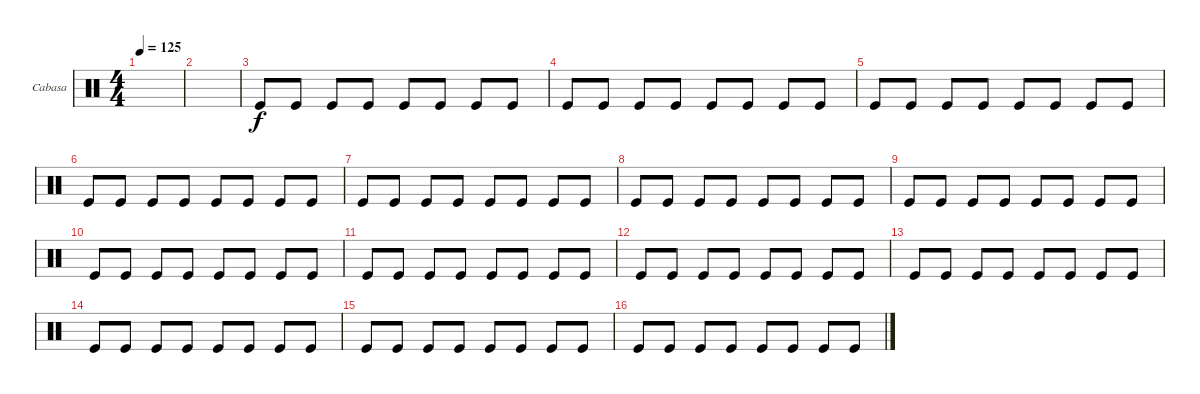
\defaultSystemsLayout 4
\bracketExtendMode groupsimilarinstruments
\firstSystemTrackNameOrientation horizontal
\otherSystemsTrackNameOrientation horizontal
\track ("Cabasa" "Cabasa") {instrument percussion}
\staff {score}
\articulation defaults
\ts (4 4)
\tempo 125
\clef neutral
\ks c
|
|
"Kick (hit)".8 "Kick (hit)".8 "Kick (hit)".8 "Kick (hit)".8 "Kick (hit)".8 "Kick (hit)".8 "Kick (hit)".8 "Kick (hit)".8 |
"Kick (hit)".8 "Kick (hit)".8 "Kick (hit)".8 "Kick (hit)".8 "Kick (hit)".8 "Kick (hit)".8 "Kick (hit)".8 "Kick (hit)".8 |
"Kick (hit)".8 "Kick (hit)".8 "Kick (hit)".8 "Kick (hit)".8 "Kick (hit)".8 "Kick (hit)".8 "Kick (hit)".8 "Kick (hit)".8 |
"Kick (hit)".8 "Kick (hit)".8 "Kick (hit)".8 "Kick (hit)".8 "Kick (hit)".8 "Kick (hit)".8 "Kick (hit)".8 "Kick (hit)".8 |
"Kick (hit)".8 "Kick (hit)".8 "Kick (hit)".8 "Kick (hit)".8 "Kick (hit)".8 "Kick (hit)".8 "Kick (hit)".8 "Kick (hit)".8 |
"Kick (hit)".8 "Kick (hit)".8 "Kick (hit)".8 "Kick (hit)".8 "Kick (hit)".8 "Kick (hit)".8 "Kick (hit)".8 "Kick (hit)".8 |
"Kick (hit)".8 "Kick (hit)".8 "Kick (hit)".8 "Kick (hit)".8 "Kick (hit)".8 "Kick (hit)".8 "Kick (hit)".8 "Kick (hit)".8 |
"Kick (hit)".8 "Kick (hit)".8 "Kick (hit)".8 "Kick (hit)".8 "Kick (hit)".8 "Kick (hit)".8 "Kick (hit)".8 "Kick (hit)".8 |
"Kick (hit)".8 "Kick (hit)".8 "Kick (hit)".8 "Kick (hit)".8 "Kick (hit)".8 "Kick (hit)".8 "Kick (hit)".8 "Kick (hit)".8 |
"Kick (hit)".8 "Kick (hit)".8 "Kick (hit)".8 "Kick (hit)".8 "Kick (hit)".8 "Kick (hit)".8 "Kick (hit)".8 "Kick (hit)".8 |
"Kick (hit)".8 "Kick (hit)".8 "Kick (hit)".8 "Kick (hit)".8 "Kick (hit)".8 "Kick (hit)".8 "Kick (hit)".8 "Kick (hit)".8 |
"Kick (hit)".8 "Kick (hit)".8 "Kick (hit)".8 "Kick (hit)".8 "Kick (hit)".8 "Kick (hit)".8 "Kick (hit)".8 "Kick (hit)".8 |
"Kick (hit)".8 "Kick (hit)".8 "Kick (hit)".8 "Kick (hit)".8 "Kick (hit)".8 "Kick (hit)".8 "Kick (hit)".8 "Kick (hit)".8 |
"Kick (hit)".8 "Kick (hit)".8 "Kick (hit)".8 "Kick (hit)".8 "Kick (hit)".8 "Kick (hit)".8 "Kick (hit)".8 "Kick (hit)".8
